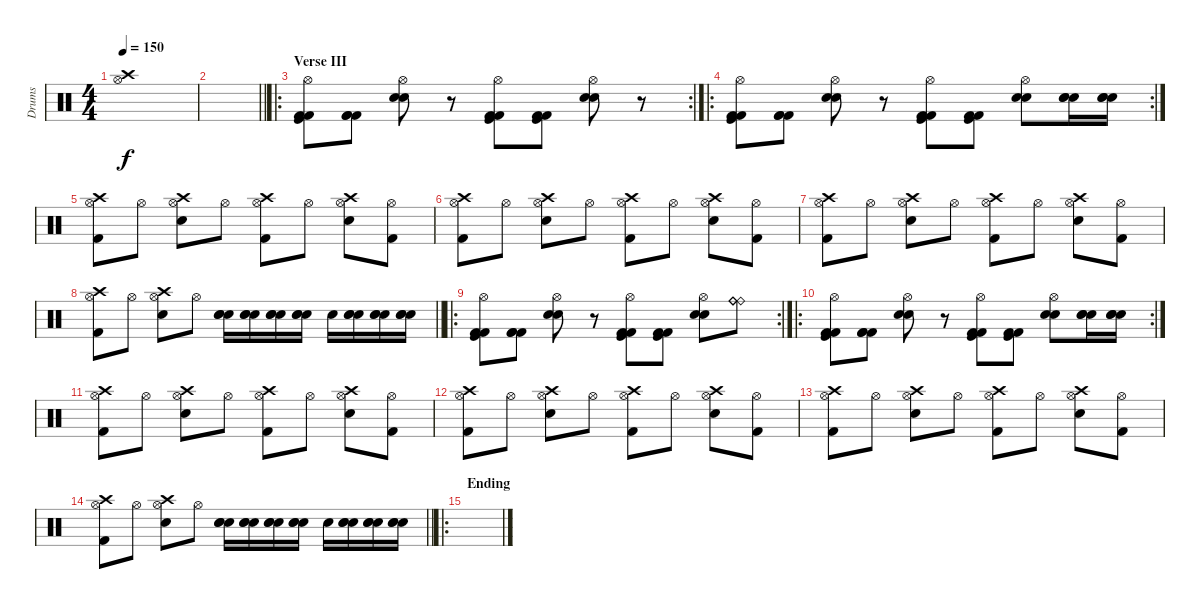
\track ("Drums" "Drums") {instrument percussion}
\staff {score}
\articulation defaults
\ts (4 4)
\tempo 150
\clef neutral
\ks c
("Crash high (hit)" "Hi-Hat (open)").1{dy f} |
\barLineRight lightlight
|
\ro
\rc 2
\section ("" "Verse III")
("Kick (hit) 2" "Hi-Hat (open)" "Kick (hit) 2" "Kick (hit)").8 ("Kick (hit) 2" "Kick (hit) 2" "Kick (hit) 2").8 ("Hi-Hat (open)" "Electric Snare (hit)" "Snare (hit) 2").8 r.8 ("Kick (hit) 2" "Hi-Hat (open)" "Kick (hit) 2" "Kick (hit)").8 ("Kick (hit) 2" "Kick (hit) 2" "Kick (hit)").8 ("Hi-Hat (open)" "Electric Snare (hit)" "Snare (hit) 2").8 r.8 |
\ro
\rc 2
("Kick (hit) 2" "Hi-Hat (open)" "Kick (hit) 2" "Kick (hit)").8 ("Kick (hit) 2" "Kick (hit) 2" "Kick (hit) 2").8 ("Hi-Hat (open)" "Electric Snare (hit)" "Snare (hit) 2").8 r.8 ("Kick (hit) 2" "Hi-Hat (open)" "Kick (hit) 2" "Kick (hit)").8 ("Kick (hit) 2" "Kick (hit) 2" "Kick (hit)").8 ("Hi-Hat (open)" "Electric Snare (hit)" "Snare (hit) 2").8 ("Electric Snare (hit)" "Electric Snare (hit)" "Snare (hit) 2").16 ("Electric Snare (hit)" "Electric Snare (hit)" "Snare (hit) 2").16 |
("Crash high (hit)" "Hi-Hat (open)" "Kick (hit) 2").8 "Hi-Hat (open)".8 ("Crash high (hit)" "Hi-Hat (open)" "Electric Snare (hit)").8 "Hi-Hat (open)".8 ("Crash high (hit)" "Hi-Hat (open)" "Kick (hit) 2").8 "Hi-Hat (open)".8 ("Crash high (hit)" "Hi-Hat (open)" "Electric Snare (hit)").8 ("Hi-Hat (open)" "Kick (hit) 2").8 |
("Crash high (hit)" "Hi-Hat (open)" "Kick (hit) 2").8 "Hi-Hat (open)".8 ("Crash high (hit)" "Hi-Hat (open)" "Electric Snare (hit)").8 "Hi-Hat (open)".8 ("Crash high (hit)" "Hi-Hat (open)" "Kick (hit) 2").8 "Hi-Hat (open)".8 ("Crash high (hit)" "Hi-Hat (open)" "Electric Snare (hit)").8 ("Hi-Hat (open)" "Kick (hit) 2").8 |
("Crash high (hit)" "Hi-Hat (open)" "Kick (hit) 2").8 "Hi-Hat (open)".8 ("Crash high (hit)" "Hi-Hat (open)" "Electric Snare (hit)").8 "Hi-Hat (open)".8 ("Crash high (hit)" "Hi-Hat (open)" "Kick (hit) 2").8 "Hi-Hat (open)".8 ("Crash high (hit)" "Hi-Hat (open)" "Electric Snare (hit)").8 ("Hi-Hat (open)" "Kick (hit) 2").8 |
\barLineRight lightlight
("Crash high (hit)" "Hi-Hat (open)" "Kick (hit) 2").8 "Hi-Hat (open)".8 ("Crash high (hit)" "Hi-Hat (open)" "Electric Snare (hit)").8 "Hi-Hat (open)".8 ("Snare (hit) 2" "Snare (hit) 2" "Electric Snare (hit)").16 ("Snare (hit) 2" "Snare (hit) 2" "Electric Snare (hit)").16 ("Snare (hit) 2" "Snare (hit) 2" "Electric Snare (hit)").16 ("Snare (hit) 2" "Snare (hit) 2" "Electric Snare (hit)").16 "Electric Snare (hit)".16 ("Snare (hit) 2" "Snare (hit) 2" "Electric Snare (hit)").16 ("Snare (hit) 2" "Snare (hit) 2" "Electric Snare (hit)").16 ("Snare (hit) 2" "Snare (hit) 2" "Electric Snare (hit)").16 |
\ro
\rc 2
("Kick (hit) 2" "Hi-Hat (open)" "Kick (hit) 2" "Kick (hit)").8 ("Kick (hit) 2" "Kick (hit) 2" "Kick (hit) 2").8 ("Hi-Hat (open)" "Electric Snare (hit)" "Snare (hit) 2").8 r.8 ("Kick (hit) 2" "Hi-Hat (open)" "Kick (hit) 2" "Kick (hit)").8 ("Kick (hit) 2" "Kick (hit) 2" "Kick (hit)").8 ("Hi-Hat (open)" "Electric Snare (hit)" "Snare (hit) 2").8 ("Ride (bell)" "Ride (bell)" "Ride (bell)" "Ride (bell)").8 |
\ro
\rc 2
("Kick (hit) 2" "Hi-Hat (open)" "Kick (hit) 2" "Kick (hit)").8 ("Kick (hit) 2" "Kick (hit) 2" "Kick (hit) 2").8 ("Hi-Hat (open)" "Electric Snare (hit)" "Snare (hit) 2").8 r.8 ("Kick (hit) 2" "Hi-Hat (open)" "Kick (hit) 2" "Kick (hit)").8 ("Kick (hit) 2" "Kick (hit) 2" "Kick (hit)").8 ("Hi-Hat (open)" "Electric Snare (hit)" "Snare (hit) 2").8 ("Electric Snare (hit)" "Electric Snare (hit)" "Snare (hit) 2").16 ("Electric Snare (hit)" "Electric Snare (hit)" "Snare (hit) 2").16 |
("Crash high (hit)" "Hi-Hat (open)" "Kick (hit) 2").8 "Hi-Hat (open)".8 ("Crash high (hit)" "Hi-Hat (open)" "Electric Snare (hit)").8 "Hi-Hat (open)".8 ("Crash high (hit)" "Hi-Hat (open)" "Kick (hit) 2").8 "Hi-Hat (open)".8 ("Crash high (hit)" "Hi-Hat (open)" "Electric Snare (hit)").8 ("Hi-Hat (open)" "Kick (hit) 2").8 |
("Crash high (hit)" "Hi-Hat (open)" "Kick (hit) 2").8 "Hi-Hat (open)".8 ("Crash high (hit)" "Hi-Hat (open)" "Electric Snare (hit)").8 "Hi-Hat (open)".8 ("Crash high (hit)" "Hi-Hat (open)" "Kick (hit) 2").8 "Hi-Hat (open)".8 ("Crash high (hit)" "Hi-Hat (open)" "Electric Snare (hit)").8 ("Hi-Hat (open)" "Kick (hit) 2").8 |
("Crash high (hit)" "Hi-Hat (open)" "Kick (hit) 2").8 "Hi-Hat (open)".8 ("Crash high (hit)" "Hi-Hat (open)" "Electric Snare (hit)").8 "Hi-Hat (open)".8 ("Crash high (hit)" "Hi-Hat (open)" "Kick (hit) 2").8 "Hi-Hat (open)".8 ("Crash high (hit)" "Hi-Hat (open)" "Electric Snare (hit)").8 ("Hi-Hat (open)" "Kick (hit) 2").8 |
\barLineRight lightlight
("Crash high (hit)" "Hi-Hat (open)" "Kick (hit) 2").8 "Hi-Hat (open)".8 ("Crash high (hit)" "Hi-Hat (open)" "Electric Snare (hit)").8 "Hi-Hat (open)".8 ("Snare (hit) 2" "Snare (hit) 2" "Electric Snare (hit)").16 ("Snare (hit) 2" "Snare (hit) 2" "Electric Snare (hit)").16 ("Snare (hit) 2" "Snare (hit) 2" "Electric Snare (hit)").16 ("Snare (hit) 2" "Snare (hit) 2" "Electric Snare (hit)").16 "Electric Snare (hit)".16 ("Snare (hit) 2" "Snare (hit) 2" "Electric Snare (hit)").16 ("Snare (hit) 2" "Snare (hit) 2" "Electric Snare (hit)").16 ("Snare (hit) 2" "Snare (hit) 2" "Electric Snare (hit)").16 |
\ro
\section ("" "Ending")
